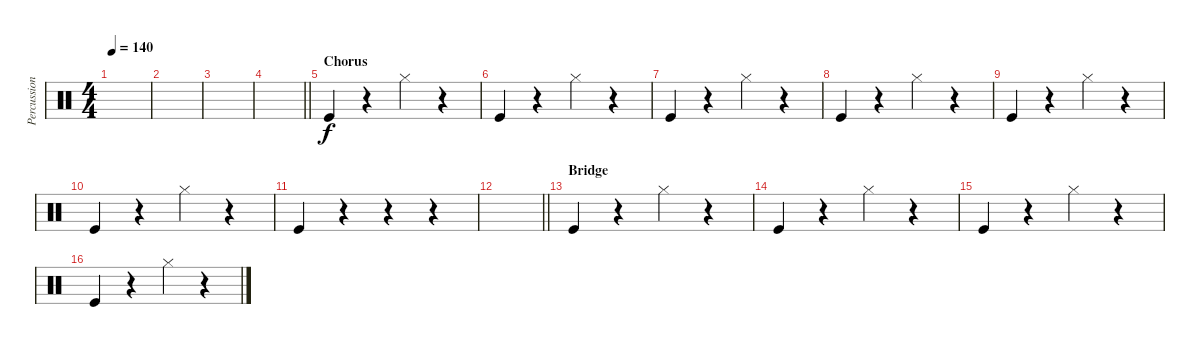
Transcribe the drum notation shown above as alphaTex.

\track ("Percussion" "Percussion") {instrument percussion}
\staff {score}
\articulation defaults
\ts (4 4)
\tempo 140
\clef neutral
\ks c
|
|
|
\barLineRight lightlight
|
\section ("" "Chorus")
"Kick (hit)".4 r.4 "Hi-Hat (closed)".4 r.4 |
"Kick (hit)".4 r.4 "Hi-Hat (closed)".4 r.4 |
"Kick (hit)".4 r.4 "Hi-Hat (closed)".4 r.4 |
"Kick (hit)".4 r.4 "Hi-Hat (closed)".4 r.4 |
"Kick (hit)".4 r.4 "Hi-Hat (closed)".4 r.4 |
"Kick (hit)".4 r.4 "Hi-Hat (closed)".4 r.4 |
"Kick (hit)".4 r.4 r.4 r.4 |
\barLineRight lightlight
|
\section ("" "Bridge")
"Kick (hit)".4 r.4 "Hi-Hat (closed)".4 r.4 |
"Kick (hit)".4 r.4 "Hi-Hat (closed)".4 r.4 |
"Kick (hit)".4 r.4 "Hi-Hat (closed)".4 r.4 |
"Kick (hit)".4 r.4 "Hi-Hat (closed)".4 r.4
